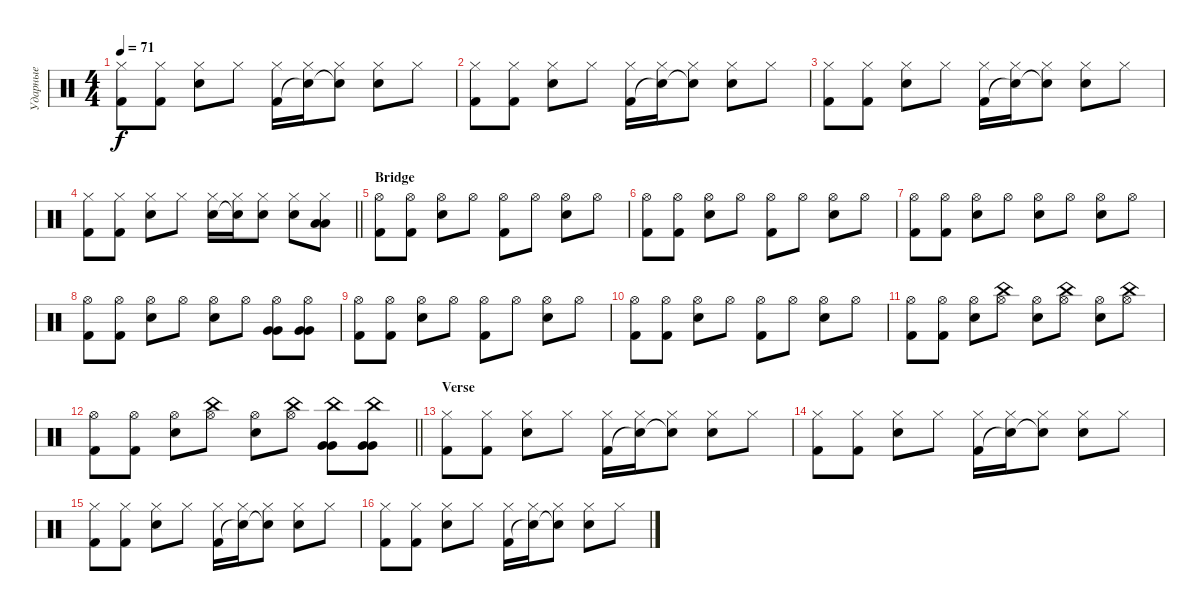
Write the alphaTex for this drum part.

\track ("Ударные" "Ударные") {instrument percussion}
\staff {score}
\articulation defaults
\ts (4 4)
\tempo 71
\clef neutral
\ks c
("Kick (hit) 2" "Hi-Hat (closed)").8{dy f} ("Kick (hit) 2" "Hi-Hat (closed)").8 ("Electric Snare (hit)" "Hi-Hat (closed)").8 "Hi-Hat (closed)".8 ("Kick (hit) 2" "Hi-Hat (closed)").16 ("Snare (hit)"{t} "Hi-Hat (closed)").16 ("Snare (hit)"{t} "Hi-Hat (closed)").8 ("Electric Snare (hit)" "Hi-Hat (closed)").8 "Hi-Hat (closed)".8 |
("Kick (hit) 2" "Hi-Hat (closed)").8 ("Kick (hit) 2" "Hi-Hat (closed)").8 ("Electric Snare (hit)" "Hi-Hat (closed)").8 "Hi-Hat (closed)".8 ("Kick (hit) 2" "Hi-Hat (closed)").16 ("Snare (hit)"{t} "Hi-Hat (closed)").16 ("Snare (hit)"{t} "Hi-Hat (closed)").8 ("Electric Snare (hit)" "Hi-Hat (closed)").8 "Hi-Hat (closed)".8 |
("Kick (hit) 2" "Hi-Hat (closed)").8 ("Kick (hit) 2" "Hi-Hat (closed)").8 ("Electric Snare (hit)" "Hi-Hat (closed)").8 "Hi-Hat (closed)".8 ("Kick (hit) 2" "Hi-Hat (closed)").16 ("Snare (hit)"{t} "Hi-Hat (closed)").16 ("Snare (hit)"{t} "Hi-Hat (closed)").8 ("Electric Snare (hit)" "Hi-Hat (closed)").8 "Hi-Hat (closed)".8 |
\barLineRight lightlight
("Kick (hit) 2" "Hi-Hat (closed)").8 ("Kick (hit) 2" "Hi-Hat (closed)").8 ("Electric Snare (hit)" "Hi-Hat (closed)").8 "Hi-Hat (closed)".8 ("Electric Snare (hit)" "Hi-Hat (closed)").16 ("Snare (hit)"{t} "Hi-Hat (closed)").16 ("Electric Snare (hit)" "Hi-Hat (closed)").8 ("Electric Snare (hit)" "Hi-Hat (closed)").8 ("Low Tom (hit)" "Low Tom (hit)" "Hi-Hat (closed)").8 |
\section ("" "Bridge")
("Kick (hit) 2" "Hi-Hat (open)").8 ("Kick (hit) 2" "Hi-Hat (open)").8 ("Electric Snare (hit)" "Hi-Hat (open)").8 "Hi-Hat (open)".8 ("Kick (hit) 2" "Hi-Hat (open)").8 "Hi-Hat (open)".8 ("Electric Snare (hit)" "Hi-Hat (open)").8 "Hi-Hat (open)".8 |
("Kick (hit) 2" "Hi-Hat (open)").8 ("Kick (hit) 2" "Hi-Hat (open)").8 ("Electric Snare (hit)" "Hi-Hat (open)").8 "Hi-Hat (open)".8 ("Kick (hit) 2" "Hi-Hat (open)").8 "Hi-Hat (open)".8 ("Electric Snare (hit)" "Hi-Hat (open)").8 "Hi-Hat (open)".8 |
("Kick (hit) 2" "Hi-Hat (open)").8 ("Kick (hit) 2" "Hi-Hat (open)").8 ("Electric Snare (hit)" "Hi-Hat (open)").8 "Hi-Hat (open)".8 ("Electric Snare (hit)" "Hi-Hat (open)").8 "Hi-Hat (open)".8 ("Electric Snare (hit)" "Hi-Hat (open)").8 "Hi-Hat (open)".8 |
("Kick (hit) 2" "Hi-Hat (open)").8 ("Kick (hit) 2" "Hi-Hat (open)").8 ("Electric Snare (hit)" "Hi-Hat (open)").8 "Hi-Hat (open)".8 ("Electric Snare (hit)" "Hi-Hat (open)").8 "Hi-Hat (open)".8 ("Very Low Tom (hit)" "Very Low Tom (hit)" "Hi-Hat (open)").8 ("Very Low Tom (hit)" "Very Low Tom (hit)" "Hi-Hat (open)").8 |
("Kick (hit) 2" "Hi-Hat (open)").8 ("Kick (hit) 2" "Hi-Hat (open)").8 ("Electric Snare (hit)" "Hi-Hat (open)").8 "Hi-Hat (open)".8 ("Kick (hit) 2" "Hi-Hat (open)").8 "Hi-Hat (open)".8 ("Electric Snare (hit)" "Hi-Hat (open)").8 "Hi-Hat (open)".8 |
("Kick (hit) 2" "Hi-Hat (open)").8 ("Kick (hit) 2" "Hi-Hat (open)").8 ("Electric Snare (hit)" "Hi-Hat (open)").8 "Hi-Hat (open)".8 ("Kick (hit) 2" "Hi-Hat (open)").8 "Hi-Hat (open)".8 ("Electric Snare (hit)" "Hi-Hat (open)").8 "Hi-Hat (open)".8 |
("Kick (hit) 2" "Hi-Hat (open)").8 ("Kick (hit) 2" "Hi-Hat (open)").8 ("Electric Snare (hit)" "Hi-Hat (open)").8 ("China (hit)" "Hi-Hat (open)").8 ("Electric Snare (hit)" "Hi-Hat (open)").8 ("China (hit)" "Hi-Hat (open)").8 ("Electric Snare (hit)" "Hi-Hat (open)").8 ("China (hit)" "Hi-Hat (open)").8 |
\barLineRight lightlight
("Kick (hit) 2" "Hi-Hat (open)").8 ("Kick (hit) 2" "Hi-Hat (open)").8 ("Electric Snare (hit)" "Hi-Hat (open)").8 ("China (hit)" "Hi-Hat (open)").8 ("Electric Snare (hit)" "Hi-Hat (open)").8 ("China (hit)" "Hi-Hat (open)").8 ("Very Low Tom (hit)" "Very Low Tom (hit)" "China (hit)").8 ("Very Low Tom (hit)" "Very Low Tom (hit)" "China (hit)").8 |
\section ("" "Verse")
("Kick (hit) 2" "Hi-Hat (closed)").8 ("Kick (hit) 2" "Hi-Hat (closed)").8 ("Electric Snare (hit)" "Hi-Hat (closed)").8 "Hi-Hat (closed)".8 ("Kick (hit) 2" "Hi-Hat (closed)").16 ("Snare (hit)"{t} "Hi-Hat (closed)").16 ("Snare (hit)"{t} "Hi-Hat (closed)").8 ("Electric Snare (hit)" "Hi-Hat (closed)").8 "Hi-Hat (closed)".8 |
("Kick (hit) 2" "Hi-Hat (closed)").8 ("Kick (hit) 2" "Hi-Hat (closed)").8 ("Electric Snare (hit)" "Hi-Hat (closed)").8 "Hi-Hat (closed)".8 ("Kick (hit) 2" "Hi-Hat (closed)").16 ("Snare (hit)"{t} "Hi-Hat (closed)").16 ("Snare (hit)"{t} "Hi-Hat (closed)").8 ("Electric Snare (hit)" "Hi-Hat (closed)").8 "Hi-Hat (closed)".8 |
("Kick (hit) 2" "Hi-Hat (closed)").8 ("Kick (hit) 2" "Hi-Hat (closed)").8 ("Electric Snare (hit)" "Hi-Hat (closed)").8 "Hi-Hat (closed)".8 ("Kick (hit) 2" "Hi-Hat (closed)").16 ("Snare (hit)"{t} "Hi-Hat (closed)").16 ("Snare (hit)"{t} "Hi-Hat (closed)").8 ("Electric Snare (hit)" "Hi-Hat (closed)").8 "Hi-Hat (closed)".8 |
("Kick (hit) 2" "Hi-Hat (closed)").8 ("Kick (hit) 2" "Hi-Hat (closed)").8 ("Electric Snare (hit)" "Hi-Hat (closed)").8 "Hi-Hat (closed)".8 ("Kick (hit) 2" "Hi-Hat (closed)").16 ("Snare (hit)"{t} "Hi-Hat (closed)").16 ("Snare (hit)"{t} "Hi-Hat (closed)").8 ("Electric Snare (hit)" "Hi-Hat (closed)").8 "Hi-Hat (closed)".8
